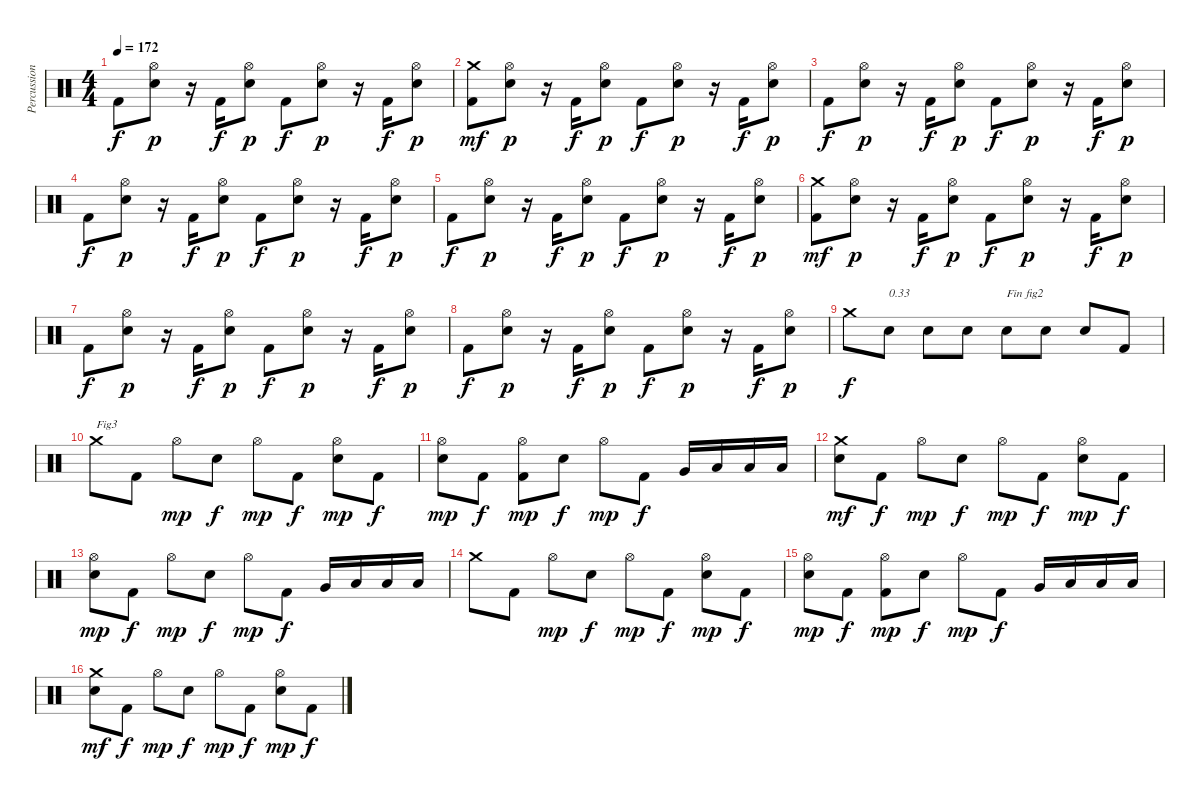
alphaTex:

\track ("Percussions" "Percussion") {instrument percussion}
\staff {score}
\articulation defaults
\ts (4 4)
\tempo 172
\clef neutral
\ks c "Kick (hit) 2".8{dy f}
("Electric Snare (hit)" "Hi-Hat (open)").8{dy p} r.16 "Kick (hit) 2".16{dy f} ("Electric Snare (hit)" "Hi-Hat (open)").8{dy p} "Kick (hit) 2".8{dy f} ("Electric Snare (hit)" "Hi-Hat (open)").8{dy p} r.16 "Kick (hit) 2".16{dy f} ("Electric Snare (hit)" "Hi-Hat (open)").8{dy p} |
("Kick (hit) 2" "Crash medium (hit)").8{dy mf} ("Electric Snare (hit)" "Hi-Hat (open)").8{dy p} r.16 "Kick (hit) 2".16{dy f} ("Electric Snare (hit)" "Hi-Hat (open)").8{dy p} "Kick (hit) 2".8{dy f} ("Electric Snare (hit)" "Hi-Hat (open)").8{dy p} r.16 "Kick (hit) 2".16{dy f} ("Electric Snare (hit)" "Hi-Hat (open)").8{dy p} |
"Kick (hit) 2".8{dy f} ("Electric Snare (hit)" "Hi-Hat (open)").8{dy p} r.16 "Kick (hit) 2".16{dy f} ("Electric Snare (hit)" "Hi-Hat (open)").8{dy p} "Kick (hit) 2".8{dy f} ("Electric Snare (hit)" "Hi-Hat (open)").8{dy p} r.16 "Kick (hit) 2".16{dy f} ("Electric Snare (hit)" "Hi-Hat (open)").8{dy p} |
"Kick (hit) 2".8{dy f} ("Electric Snare (hit)" "Hi-Hat (open)").8{dy p} r.16 "Kick (hit) 2".16{dy f} ("Electric Snare (hit)" "Hi-Hat (open)").8{dy p} "Kick (hit) 2".8{dy f} ("Electric Snare (hit)" "Hi-Hat (open)").8{dy p} r.16 "Kick (hit) 2".16{dy f} ("Electric Snare (hit)" "Hi-Hat (open)").8{dy p} |
"Kick (hit) 2".8{dy f} ("Electric Snare (hit)" "Hi-Hat (open)").8{dy p} r.16 "Kick (hit) 2".16{dy f} ("Electric Snare (hit)" "Hi-Hat (open)").8{dy p} "Kick (hit) 2".8{dy f} ("Electric Snare (hit)" "Hi-Hat (open)").8{dy p} r.16 "Kick (hit) 2".16{dy f} ("Electric Snare (hit)" "Hi-Hat (open)").8{dy p} |
("Kick (hit) 2" "Crash medium (hit)").8{dy mf} ("Electric Snare (hit)" "Hi-Hat (open)").8{dy p} r.16 "Kick (hit) 2".16{dy f} ("Electric Snare (hit)" "Hi-Hat (open)").8{dy p} "Kick (hit) 2".8{dy f} ("Electric Snare (hit)" "Hi-Hat (open)").8{dy p} r.16 "Kick (hit) 2".16{dy f} ("Electric Snare (hit)" "Hi-Hat (open)").8{dy p} |
"Kick (hit) 2".8{dy f} ("Electric Snare (hit)" "Hi-Hat (open)").8{dy p} r.16 "Kick (hit) 2".16{dy f} ("Electric Snare (hit)" "Hi-Hat (open)").8{dy p} "Kick (hit) 2".8{dy f} ("Electric Snare (hit)" "Hi-Hat (open)").8{dy p} r.16 "Kick (hit) 2".16{dy f} ("Electric Snare (hit)" "Hi-Hat (open)").8{dy p} |
"Kick (hit) 2".8{dy f} ("Electric Snare (hit)" "Hi-Hat (open)").8{dy p} r.16 "Kick (hit) 2".16{dy f} ("Electric Snare (hit)" "Hi-Hat (open)").8{dy p} "Kick (hit) 2".8{dy f} ("Electric Snare (hit)" "Hi-Hat (open)").8{dy p} r.16 "Kick (hit) 2".16{dy f} ("Electric Snare (hit)" "Hi-Hat (open)").8{dy p} |
"Crash medium (hit)".8{dy f} "Electric Snare (hit)".8{txt "0.33"} "Electric Snare (hit)".8 "Electric Snare (hit)".8 "Electric Snare (hit)".8{txt "Fin fig2"} "Electric Snare (hit)".8 "Electric Snare (hit)".8 "Kick (hit) 2".8 |
"Crash medium (hit)".8{txt "Fig3"} "Kick (hit) 2".8 "Hi-Hat (open)".8{dy mp} "Electric Snare (hit)".8{dy f} "Hi-Hat (open)".8{dy mp} "Kick (hit) 2".8{dy f} ("Electric Snare (hit)" "Hi-Hat (open)").8{dy mp} "Kick (hit) 2".8{dy f} |
("Electric Snare (hit)" "Hi-Hat (open)").8{dy mp} "Kick (hit) 2".8{dy f} ("Kick (hit) 2" "Hi-Hat (open)").8{dy mp} "Electric Snare (hit)".8{dy f} "Hi-Hat (open)".8{dy mp} "Kick (hit) 2".8{dy f} "Very Low Tom (hit)".16 "Low Floor Tom (hit)".16 "Low Floor Tom (hit)".16 "Low Floor Tom (hit)".16 |
("Electric Snare (hit)" "Crash medium (hit)").8{dy mf} "Kick (hit) 2".8{dy f} "Hi-Hat (open)".8{dy mp} "Electric Snare (hit)".8{dy f} "Hi-Hat (open)".8{dy mp} "Kick (hit) 2".8{dy f} ("Electric Snare (hit)" "Hi-Hat (open)").8{dy mp} "Kick (hit) 2".8{dy f} |
("Electric Snare (hit)" "Hi-Hat (open)").8{dy mp} "Kick (hit) 2".8{dy f} "Hi-Hat (open)".8{dy mp} "Electric Snare (hit)".8{dy f} "Hi-Hat (open)".8{dy mp} "Kick (hit) 2".8{dy f} "Very Low Tom (hit)".16 "Low Floor Tom (hit)".16 "Low Floor Tom (hit)".16 "Low Floor Tom (hit)".16 |
"Crash medium (hit)".8 "Kick (hit) 2".8 "Hi-Hat (open)".8{dy mp} "Electric Snare (hit)".8{dy f} "Hi-Hat (open)".8{dy mp} "Kick (hit) 2".8{dy f} ("Electric Snare (hit)" "Hi-Hat (open)").8{dy mp} "Kick (hit) 2".8{dy f} |
("Electric Snare (hit)" "Hi-Hat (open)").8{dy mp} "Kick (hit) 2".8{dy f} ("Kick (hit) 2" "Hi-Hat (open)").8{dy mp} "Electric Snare (hit)".8{dy f} "Hi-Hat (open)".8{dy mp} "Kick (hit) 2".8{dy f} "Very Low Tom (hit)".16 "Low Floor Tom (hit)".16 "Low Floor Tom (hit)".16 "Low Floor Tom (hit)".16 |
("Electric Snare (hit)" "Crash medium (hit)").8{dy mf} "Kick (hit) 2".8{dy f} "Hi-Hat (open)".8{dy mp} "Electric Snare (hit)".8{dy f} "Hi-Hat (open)".8{dy mp} "Kick (hit) 2".8{dy f} ("Electric Snare (hit)" "Hi-Hat (open)").8{dy mp} "Kick (hit) 2".8{dy f}
